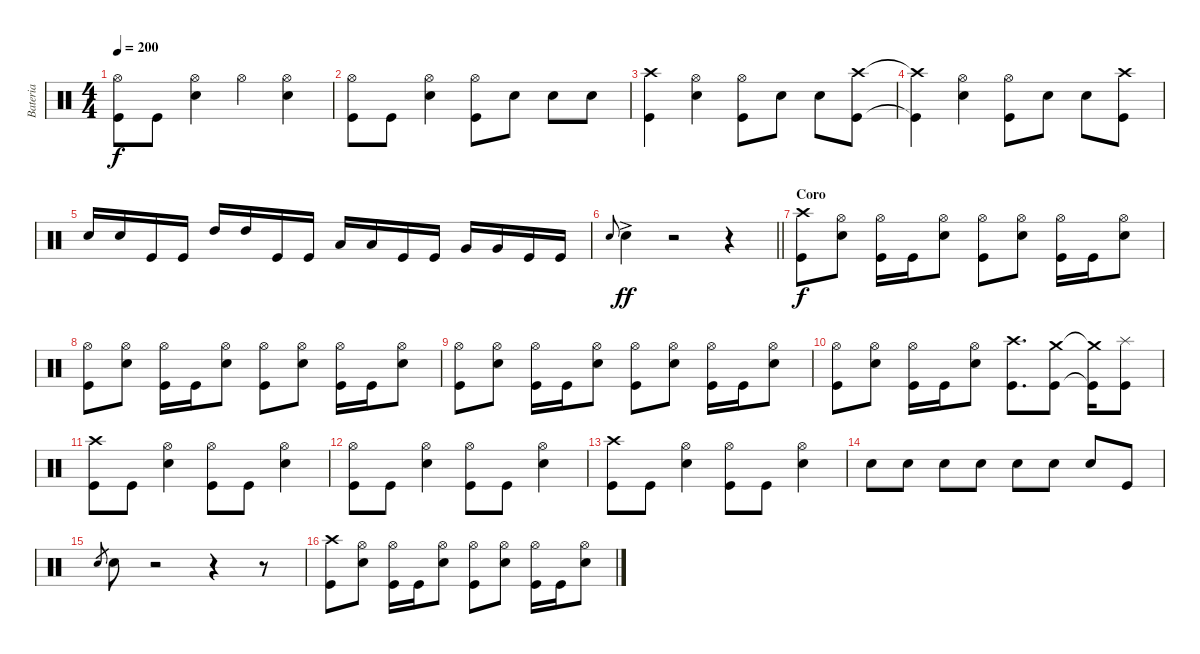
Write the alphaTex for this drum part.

\track ("Bateria" "Bateria") {instrument percussion}
\staff {score}
\articulation defaults
\ts (4 4)
\tempo 200
\clef neutral
\ks c
("Hi-Hat (open)" "Kick (hit)").8{dy f} "Kick (hit)".8 ("Hi-Hat (open)" "Snare (hit) 2").4 "Hi-Hat (open)".4 ("Hi-Hat (open)" "Snare (hit) 2").4 |
("Hi-Hat (open)" "Kick (hit)").8 "Kick (hit)".8 ("Hi-Hat (open)" "Snare (hit) 2").4 ("Hi-Hat (open)" "Kick (hit)").8 "Snare (hit) 2".8 "Snare (hit) 2".8 "Snare (hit) 2".8 |
("Crash high (hit)" "Kick (hit)").4 ("Hi-Hat (open)" "Snare (hit) 2").4 ("Hi-Hat (open)" "Kick (hit)").8 "Snare (hit) 2".8 "Snare (hit) 2".8 ("Crash high (hit)" "Kick (hit)").8 |
("Crash high (hit)"{t} "Kick (hit)"{t}).4 ("Hi-Hat (open)" "Snare (hit) 2").4 ("Hi-Hat (open)" "Kick (hit)").8 "Snare (hit) 2".8 "Snare (hit) 2".8 ("Crash high (hit)" "Kick (hit)").8 |
"Snare (hit) 2".16 "Snare (hit) 2".16 "Kick (hit)".16 "Kick (hit)".16 "High Tom (hit)".16 "High Tom (hit)".16 "Kick (hit)".16 "Kick (hit)".16 "Low Tom (hit)".16 "Low Tom (hit)".16 "Kick (hit)".16 "Kick (hit)".16 "Very Low Tom (hit)".16 "Very Low Tom (hit)".16 "Kick (hit)".16 "Kick (hit)".16 |
\barLineRight lightlight "Snare (hit) 2".8{gr onbeat} "Snare (hit) 2"{ac}.4{dy ff}
r.2 r.4 |
\section ("" "Coro")
("Crash high (hit)" "Kick (hit)").8{dy f} ("Hi-Hat (open)" "Snare (hit) 2").8 ("Hi-Hat (open)" "Kick (hit)").16 "Kick (hit)".16 ("Hi-Hat (open)" "Snare (hit) 2").8 ("Hi-Hat (open)" "Kick (hit)").8 ("Hi-Hat (open)" "Snare (hit) 2").8 ("Hi-Hat (open)" "Kick (hit)").16 "Kick (hit)".16 ("Hi-Hat (open)" "Snare (hit) 2").8 |
("Hi-Hat (open)" "Kick (hit)").8 ("Hi-Hat (open)" "Snare (hit) 2").8 ("Hi-Hat (open)" "Kick (hit)").16 "Kick (hit)".16 ("Hi-Hat (open)" "Snare (hit) 2").8 ("Hi-Hat (open)" "Kick (hit)").8 ("Hi-Hat (open)" "Snare (hit) 2").8 ("Hi-Hat (open)" "Kick (hit)").16 "Kick (hit)".16 ("Hi-Hat (open)" "Snare (hit) 2").8 |
("Hi-Hat (open)" "Kick (hit)").8 ("Hi-Hat (open)" "Snare (hit) 2").8 ("Hi-Hat (open)" "Kick (hit)").16 "Kick (hit)".16 ("Hi-Hat (open)" "Snare (hit) 2").8 ("Hi-Hat (open)" "Kick (hit)").8 ("Hi-Hat (open)" "Snare (hit) 2").8 ("Hi-Hat (open)" "Kick (hit)").16 "Kick (hit)".16 ("Hi-Hat (open)" "Snare (hit) 2").8 |
("Hi-Hat (open)" "Kick (hit)").8 ("Hi-Hat (open)" "Snare (hit) 2").8 ("Hi-Hat (open)" "Kick (hit)").16 "Kick (hit)".16 ("Hi-Hat (open)" "Snare (hit) 2").8 ("Crash high (hit)" "Kick (hit)").8{d} ("Crash medium (hit)" "Kick (hit)").8 ("Crash medium (hit)"{t} "Kick (hit)"{t}).16 ("Splash (hit)" "Kick (hit)").8 |
("Crash high (hit)" "Kick (hit)").8 "Kick (hit)".8 ("Hi-Hat (open)" "Snare (hit) 2").4 ("Hi-Hat (open)" "Kick (hit)").8 "Kick (hit)".8 ("Hi-Hat (open)" "Snare (hit) 2").4 |
("Hi-Hat (open)" "Kick (hit)").8 "Kick (hit)".8 ("Hi-Hat (open)" "Snare (hit) 2").4 ("Hi-Hat (open)" "Kick (hit)").8 "Kick (hit)".8 ("Hi-Hat (open)" "Snare (hit) 2").4 |
("Crash high (hit)" "Kick (hit)").8 "Kick (hit)".8 ("Hi-Hat (open)" "Snare (hit) 2").4 ("Hi-Hat (open)" "Kick (hit)").8 "Kick (hit)".8 ("Hi-Hat (open)" "Snare (hit) 2").4 |
"Snare (hit) 2".8 "Snare (hit) 2".8 "Snare (hit) 2".8 "Snare (hit) 2".8 "Snare (hit) 2".8 "Snare (hit) 2".8 "Snare (hit) 2".8 "Kick (hit)".8 |
"Snare (hit) 2".8{gr} "Snare (hit) 2".8 r.2 r.4 r.8 |
("Crash high (hit)" "Kick (hit)").8 ("Hi-Hat (open)" "Snare (hit) 2").8 ("Hi-Hat (open)" "Kick (hit)").16 "Kick (hit)".16 ("Hi-Hat (open)" "Snare (hit) 2").8 ("Hi-Hat (open)" "Kick (hit)").8 ("Hi-Hat (open)" "Snare (hit) 2").8 ("Hi-Hat (open)" "Kick (hit)").16 "Kick (hit)".16 ("Hi-Hat (open)" "Snare (hit) 2").8
